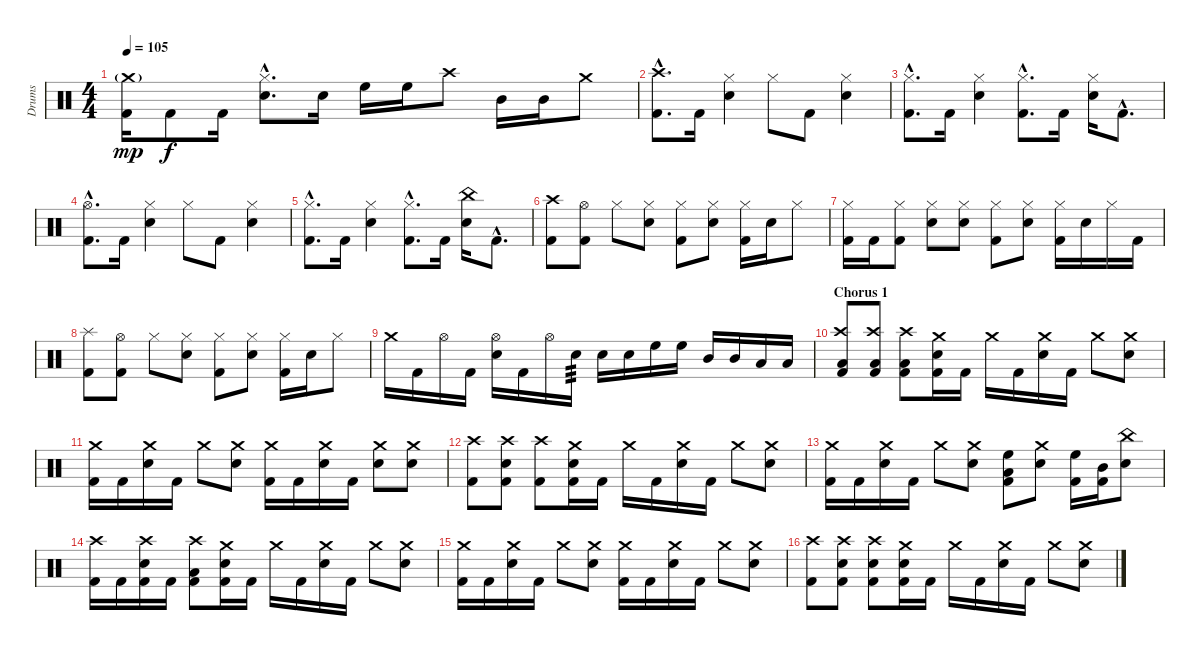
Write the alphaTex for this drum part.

\track ("Drums" "Drums") {instrument percussion}
\staff {score}
\articulation defaults
\ts (4 4)
\tempo 105
\clef neutral
\ks c
("Crash medium (hit)"{g} "Kick (hit) 2").16{dy mp} "Kick (hit) 2".8{dy f} "Kick (hit) 2".16 ("Hi-Hat (closed)"{hac} "Snare (hit) 2"{hac}).8{d} "Snare (hit) 2".16 "High Floor Tom (hit)".16 "High Floor Tom (hit)".16 "Crash high (hit)".8 "Mid Tom (hit)".16 "Mid Tom (hit)".16 "Crash medium (hit)".8 |
("Crash high (hit)"{hac} "Kick (hit) 2"{hac}).8{d} "Kick (hit) 2".16 ("Hi-Hat (closed)" "Snare (hit) 2").4 "Hi-Hat (closed)".8 "Kick (hit) 2".8 ("Hi-Hat (closed)" "Snare (hit) 2").4 |
("Hi-Hat (closed)"{hac} "Kick (hit) 2"{hac}).8{d} "Kick (hit) 2".16 ("Hi-Hat (closed)" "Snare (hit) 2").4 ("Hi-Hat (closed)"{hac} "Kick (hit) 2"{hac}).8{d} "Kick (hit) 2".16 ("Hi-Hat (closed)" "Snare (hit) 2").16 "Kick (hit) 2"{hac}.8{d} |
("Hi-Hat (open)"{hac} "Kick (hit) 2"{hac}).8{d} "Kick (hit) 2".16 ("Hi-Hat (closed)" "Snare (hit) 2").4 "Hi-Hat (closed)".8 "Kick (hit) 2".8 ("Hi-Hat (closed)" "Snare (hit) 2").4 |
("Hi-Hat (closed)"{hac} "Kick (hit) 2"{hac}).8{d} "Kick (hit) 2".16 ("Hi-Hat (closed)" "Snare (hit) 2").4 ("Hi-Hat (closed)"{hac} "Kick (hit) 2"{hac}).8{d} "Kick (hit) 2".16 ("China (hit)" "Snare (hit) 2").16 "Kick (hit) 2"{hac}.8{d} |
("Crash high (hit)" "Kick (hit) 2").8 ("Hi-Hat (open)" "Kick (hit) 2").8 "Hi-Hat (closed)".8 ("Hi-Hat (closed)" "Snare (hit) 2").8 ("Hi-Hat (closed)" "Kick (hit) 2").8 ("Hi-Hat (closed)" "Snare (hit) 2").8 ("Hi-Hat (closed)" "Kick (hit) 2").16 "Snare (hit) 2".16 "Hi-Hat (closed)".8 |
("Hi-Hat (closed)" "Kick (hit) 2").16 "Kick (hit) 2".16 ("Hi-Hat (closed)" "Kick (hit) 2").8 ("Hi-Hat (closed)" "Snare (hit) 2").8 ("Hi-Hat (closed)" "Snare (hit) 2").8 ("Hi-Hat (closed)" "Kick (hit) 2").8 ("Hi-Hat (closed)" "Snare (hit) 2").8 ("Hi-Hat (closed)" "Kick (hit) 2").16 "Snare (hit) 2".16 "Hi-Hat (closed)".16 "Kick (hit) 2".16 |
("Splash (hit)" "Kick (hit) 2").8 ("Hi-Hat (open)" "Kick (hit) 2").8 "Hi-Hat (closed)".8 ("Hi-Hat (closed)" "Snare (hit) 2").8 ("Hi-Hat (closed)" "Kick (hit) 2").8 ("Hi-Hat (closed)" "Snare (hit) 2").8 ("Hi-Hat (closed)" "Kick (hit) 2").16 "Snare (hit) 2".16 "Hi-Hat (closed)".8 |
"Crash medium (hit)".16 "Kick (hit) 2".16 "Hi-Hat (open)".16 "Kick (hit) 2".16 ("Hi-Hat (open)" "Snare (hit) 2").16 "Kick (hit) 2".16 "Hi-Hat (open)".16 "Snare (hit) 2".16{tp 3} "Snare (hit) 2".16 "Snare (hit) 2".16 "High Floor Tom (hit)".16 "High Floor Tom (hit)".16 "Mid Tom (hit)".16 "Mid Tom (hit)".16 "Low Floor Tom (hit)".16 "Low Floor Tom (hit)".16 |
\section ("" "Chorus 1")
("Crash high (hit)" "Low Tom (hit)" "Kick (hit) 2").8 ("Crash high (hit)" "Low Tom (hit)" "Kick (hit) 2").8 ("Crash high (hit)" "Low Tom (hit)" "Kick (hit) 2").8 ("Crash medium (hit)" "Snare (hit) 2" "Kick (hit) 2").16 "Kick (hit) 2".16 "Crash medium (hit)".16 "Kick (hit) 2".16 ("Crash medium (hit)" "Snare (hit) 2").16 "Kick (hit) 2".16 "Crash medium (hit)".8 ("Crash medium (hit)" "Snare (hit) 2").8 |
("Crash medium (hit)" "Kick (hit) 2").16 "Kick (hit) 2".16 ("Crash medium (hit)" "Snare (hit) 2").16 "Kick (hit) 2".16 "Crash medium (hit)".8 ("Crash medium (hit)" "Snare (hit) 2").8 ("Crash medium (hit)" "Kick (hit) 2").16 "Kick (hit) 2".16 ("Crash medium (hit)" "Snare (hit) 2").16 "Kick (hit) 2".16 ("Crash medium (hit)" "Snare (hit) 2").8 ("Crash medium (hit)" "Snare (hit) 2").8 |
("Crash high (hit)" "Kick (hit) 2").8 ("Crash high (hit)" "Snare (hit) 2" "Kick (hit) 2").8 ("Crash high (hit)" "Kick (hit) 2").8 ("Crash medium (hit)" "Snare (hit) 2" "Kick (hit) 2").16 "Kick (hit) 2".16 "Crash medium (hit)".16 "Kick (hit) 2".16 ("Crash medium (hit)" "Snare (hit) 2").16 "Kick (hit) 2".16 "Crash medium (hit)".8 ("Crash medium (hit)" "Snare (hit) 2").8 |
("Crash medium (hit)" "Kick (hit) 2").16 "Kick (hit) 2".16 ("Crash medium (hit)" "Snare (hit) 2").16 "Kick (hit) 2".16 "Crash medium (hit)".8 ("Crash medium (hit)" "Snare (hit) 2").8 ("High Floor Tom (hit)" "Low Floor Tom (hit)" "Kick (hit) 2").8 ("Crash medium (hit)" "Snare (hit) 2").8 ("High Floor Tom (hit)" "Kick (hit) 2").16 ("Mid Tom (hit)" "Kick (hit) 2").16 ("China (hit)" "Snare (hit) 2").8 |
("Crash high (hit)" "Kick (hit) 2").16 "Kick (hit) 2".16 ("Crash high (hit)" "Snare (hit) 2" "Kick (hit) 2").16 "Kick (hit) 2".16 ("Crash high (hit)" "Low Tom (hit)" "Kick (hit) 2").8 ("Crash medium (hit)" "Snare (hit) 2" "Kick (hit) 2").16 "Kick (hit) 2".16 "Crash medium (hit)".16 "Kick (hit) 2".16 ("Crash medium (hit)" "Snare (hit) 2").16 "Kick (hit) 2".16 "Crash medium (hit)".8 ("Crash medium (hit)" "Snare (hit) 2").8 |
("Crash medium (hit)" "Kick (hit) 2").16 "Kick (hit) 2".16 ("Crash medium (hit)" "Snare (hit) 2").16 "Kick (hit) 2".16 "Crash medium (hit)".8 ("Crash medium (hit)" "Snare (hit) 2").8 ("Crash medium (hit)" "Kick (hit) 2").16 "Kick (hit) 2".16 ("Crash medium (hit)" "Snare (hit) 2").16 "Kick (hit) 2".16 "Crash medium (hit)".8 ("Crash medium (hit)" "Snare (hit) 2").8 |
("Crash high (hit)" "Kick (hit) 2").8 ("Crash high (hit)" "Snare (hit) 2" "Kick (hit) 2").8 ("Crash high (hit)" "Snare (hit) 2" "Kick (hit) 2").8 ("Crash medium (hit)" "Snare (hit) 2" "Kick (hit) 2").16 "Kick (hit) 2".16 "Crash medium (hit)".16 "Kick (hit) 2".16 ("Crash medium (hit)" "Snare (hit) 2").16 "Kick (hit) 2".16 "Crash medium (hit)".8 ("Crash medium (hit)" "Snare (hit) 2").8
